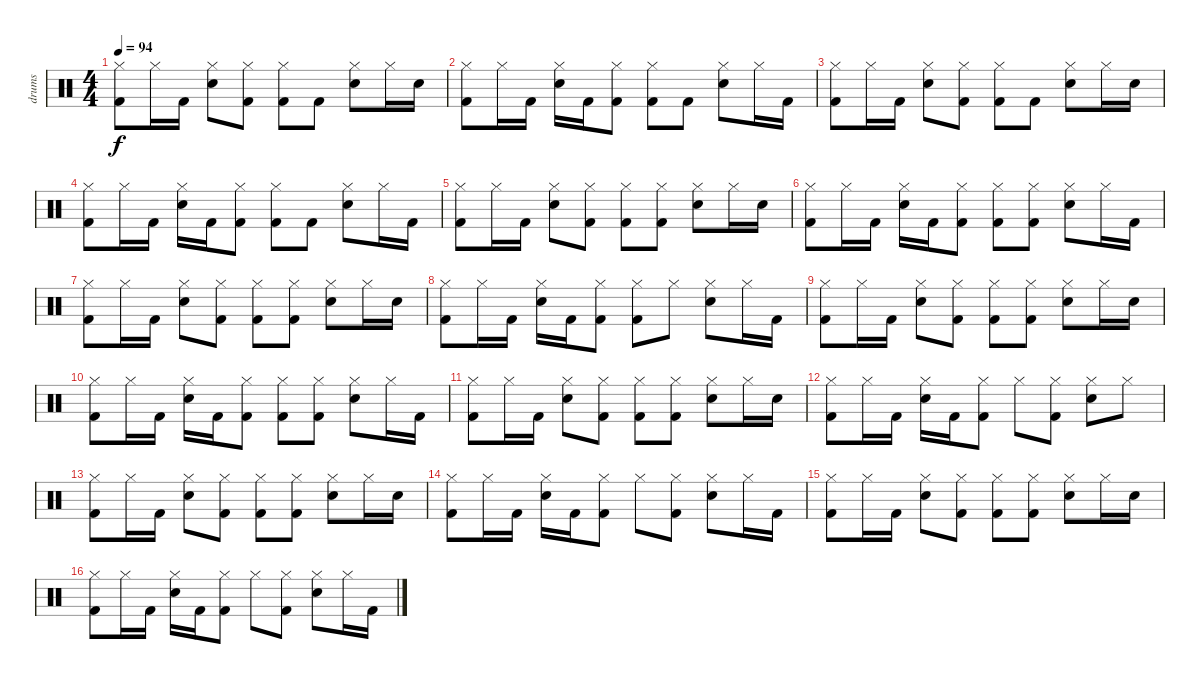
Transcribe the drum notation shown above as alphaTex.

\track ("drums" "drums") {instrument percussion}
\staff {score}
\articulation defaults
\ts (4 4)
\tempo 94
\clef neutral
\ks c
("Kick (hit) 2" "Hi-Hat (closed)").8{dy f} "Hi-Hat (closed)".16 "Kick (hit) 2".16 ("Hi-Hat (closed)" "Snare (hit) 2").8 ("Kick (hit) 2" "Hi-Hat (closed)").8 ("Kick (hit) 2" "Hi-Hat (closed)").8 "Kick (hit) 2".8 ("Hi-Hat (closed)" "Snare (hit) 2").8 "Hi-Hat (closed)".16 "Snare (hit) 2".16 |
("Hi-Hat (closed)" "Kick (hit) 2").8 "Hi-Hat (closed)".16 "Kick (hit) 2".16 ("Hi-Hat (closed)" "Snare (hit) 2").16 "Kick (hit) 2".16 ("Hi-Hat (closed)" "Kick (hit) 2").8 ("Kick (hit) 2" "Hi-Hat (closed)").8 "Kick (hit) 2".8 ("Hi-Hat (closed)" "Snare (hit) 2").8 "Hi-Hat (closed)".16 "Kick (hit) 2".16 |
("Kick (hit) 2" "Hi-Hat (closed)").8 "Hi-Hat (closed)".16 "Kick (hit) 2".16 ("Hi-Hat (closed)" "Snare (hit) 2").8 ("Kick (hit) 2" "Hi-Hat (closed)").8 ("Kick (hit) 2" "Hi-Hat (closed)").8 "Kick (hit) 2".8 ("Hi-Hat (closed)" "Snare (hit) 2").8 "Hi-Hat (closed)".16 "Snare (hit) 2".16 |
("Hi-Hat (closed)" "Kick (hit) 2").8 "Hi-Hat (closed)".16 "Kick (hit) 2".16 ("Hi-Hat (closed)" "Snare (hit) 2").16 "Kick (hit) 2".16 ("Hi-Hat (closed)" "Kick (hit) 2").8 ("Kick (hit) 2" "Hi-Hat (closed)").8 "Kick (hit) 2".8 ("Hi-Hat (closed)" "Snare (hit) 2").8 "Hi-Hat (closed)".16 "Kick (hit) 2".16 |
("Kick (hit) 2" "Hi-Hat (closed)").8 "Hi-Hat (closed)".16 "Kick (hit) 2".16 ("Hi-Hat (closed)" "Snare (hit) 2").8 ("Kick (hit) 2" "Hi-Hat (closed)").8 ("Kick (hit) 2" "Hi-Hat (closed)").8 ("Hi-Hat (closed)" "Kick (hit) 2").8 ("Hi-Hat (closed)" "Snare (hit) 2").8 "Hi-Hat (closed)".16 "Snare (hit) 2".16 |
("Hi-Hat (closed)" "Kick (hit) 2").8 "Hi-Hat (closed)".16 "Kick (hit) 2".16 ("Hi-Hat (closed)" "Snare (hit) 2").16 "Kick (hit) 2".16 ("Hi-Hat (closed)" "Kick (hit) 2").8 ("Kick (hit) 2" "Hi-Hat (closed)").8 ("Hi-Hat (closed)" "Kick (hit) 2").8 ("Hi-Hat (closed)" "Snare (hit) 2").8 "Hi-Hat (closed)".16 "Kick (hit) 2".16 |
("Kick (hit) 2" "Hi-Hat (closed)").8 "Hi-Hat (closed)".16 "Kick (hit) 2".16 ("Hi-Hat (closed)" "Snare (hit) 2").8 ("Kick (hit) 2" "Hi-Hat (closed)").8 ("Kick (hit) 2" "Hi-Hat (closed)").8 ("Hi-Hat (closed)" "Kick (hit) 2").8 ("Hi-Hat (closed)" "Snare (hit) 2").8 "Hi-Hat (closed)".16 "Snare (hit) 2".16 |
("Hi-Hat (closed)" "Kick (hit) 2").8 "Hi-Hat (closed)".16 "Kick (hit) 2".16 ("Hi-Hat (closed)" "Snare (hit) 2").16 "Kick (hit) 2".16 ("Hi-Hat (closed)" "Kick (hit) 2").8 ("Kick (hit) 2" "Hi-Hat (closed)").8 "Hi-Hat (closed)".8 ("Hi-Hat (closed)" "Snare (hit) 2").8 "Hi-Hat (closed)".16 "Kick (hit) 2".16 |
("Kick (hit) 2" "Hi-Hat (closed)").8 "Hi-Hat (closed)".16 "Kick (hit) 2".16 ("Hi-Hat (closed)" "Snare (hit) 2").8 ("Kick (hit) 2" "Hi-Hat (closed)").8 ("Kick (hit) 2" "Hi-Hat (closed)").8 ("Hi-Hat (closed)" "Kick (hit) 2").8 ("Hi-Hat (closed)" "Snare (hit) 2").8 "Hi-Hat (closed)".16 "Snare (hit) 2".16 |
("Hi-Hat (closed)" "Kick (hit) 2").8 "Hi-Hat (closed)".16 "Kick (hit) 2".16 ("Hi-Hat (closed)" "Snare (hit) 2").16 "Kick (hit) 2".16 ("Hi-Hat (closed)" "Kick (hit) 2").8 ("Kick (hit) 2" "Hi-Hat (closed)").8 ("Hi-Hat (closed)" "Kick (hit) 2").8 ("Hi-Hat (closed)" "Snare (hit) 2").8 "Hi-Hat (closed)".16 "Kick (hit) 2".16 |
("Kick (hit) 2" "Hi-Hat (closed)").8 "Hi-Hat (closed)".16 "Kick (hit) 2".16 ("Hi-Hat (closed)" "Snare (hit) 2").8 ("Kick (hit) 2" "Hi-Hat (closed)").8 ("Kick (hit) 2" "Hi-Hat (closed)").8 ("Hi-Hat (closed)" "Kick (hit) 2").8 ("Hi-Hat (closed)" "Snare (hit) 2").8 "Hi-Hat (closed)".16 "Snare (hit) 2".16 |
("Hi-Hat (closed)" "Kick (hit) 2").8 "Hi-Hat (closed)".16 "Kick (hit) 2".16 ("Hi-Hat (closed)" "Snare (hit) 2").16 "Kick (hit) 2".16 ("Hi-Hat (closed)" "Kick (hit) 2").8 "Hi-Hat (closed)".8 ("Hi-Hat (closed)" "Kick (hit) 2").8 ("Hi-Hat (closed)" "Snare (hit) 2").8 "Hi-Hat (closed)".8 |
("Kick (hit) 2" "Hi-Hat (closed)").8 "Hi-Hat (closed)".16 "Kick (hit) 2".16 ("Hi-Hat (closed)" "Snare (hit) 2").8 ("Kick (hit) 2" "Hi-Hat (closed)").8 ("Kick (hit) 2" "Hi-Hat (closed)").8 ("Hi-Hat (closed)" "Kick (hit) 2").8 ("Hi-Hat (closed)" "Snare (hit) 2").8 "Hi-Hat (closed)".16 "Snare (hit) 2".16 |
("Hi-Hat (closed)" "Kick (hit) 2").8 "Hi-Hat (closed)".16 "Kick (hit) 2".16 ("Hi-Hat (closed)" "Snare (hit) 2").16 "Kick (hit) 2".16 ("Hi-Hat (closed)" "Kick (hit) 2").8 "Hi-Hat (closed)".8 ("Hi-Hat (closed)" "Kick (hit) 2").8 ("Hi-Hat (closed)" "Snare (hit) 2").8 "Hi-Hat (closed)".16 "Kick (hit) 2".16 |
("Kick (hit) 2" "Hi-Hat (closed)").8 "Hi-Hat (closed)".16 "Kick (hit) 2".16 ("Hi-Hat (closed)" "Snare (hit) 2").8 ("Kick (hit) 2" "Hi-Hat (closed)").8 ("Kick (hit) 2" "Hi-Hat (closed)").8 ("Hi-Hat (closed)" "Kick (hit) 2").8 ("Hi-Hat (closed)" "Snare (hit) 2").8 "Hi-Hat (closed)".16 "Snare (hit) 2".16 |
("Hi-Hat (closed)" "Kick (hit) 2").8 "Hi-Hat (closed)".16 "Kick (hit) 2".16 ("Hi-Hat (closed)" "Snare (hit) 2").16 "Kick (hit) 2".16 ("Hi-Hat (closed)" "Kick (hit) 2").8 "Hi-Hat (closed)".8 ("Hi-Hat (closed)" "Kick (hit) 2").8 ("Hi-Hat (closed)" "Snare (hit) 2").8 "Hi-Hat (closed)".16 "Kick (hit) 2".16
